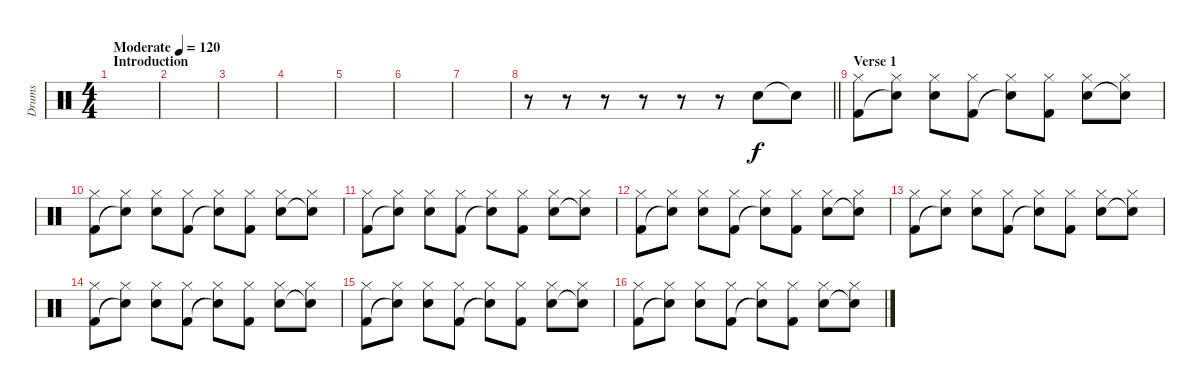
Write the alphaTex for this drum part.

\track ("Drums" "Drums") {instrument percussion}
\staff {score}
\articulation defaults
\ts (4 4)
\section ("" "Introduction")
\tempo (120 "Moderate")
\clef neutral
\ks c
|
|
|
|
|
|
|
\barLineRight lightlight
r.8 r.8 r.8 r.8 r.8 r.8 "Electric Snare (hit)".8 "Electric Snare (hit)"{t}.8 |
\section ("" "Verse 1")
("Hi-Hat (closed)" "Kick (hit) 2").8 ("Hi-Hat (closed)" "Snare (hit)"{t}).8 ("Hi-Hat (closed)" "Electric Snare (hit)").8 ("Hi-Hat (closed)" "Kick (hit) 2").8 ("Hi-Hat (closed)" "Snare (hit)"{t}).8 ("Hi-Hat (closed)" "Kick (hit) 2").8 ("Hi-Hat (closed)" "Electric Snare (hit)").8 ("Hi-Hat (closed)" "Snare (hit)"{t}).8 |
("Hi-Hat (closed)" "Kick (hit) 2").8 ("Hi-Hat (closed)" "Snare (hit)"{t}).8 ("Hi-Hat (closed)" "Electric Snare (hit)").8 ("Hi-Hat (closed)" "Kick (hit) 2").8 ("Hi-Hat (closed)" "Snare (hit)"{t}).8 ("Hi-Hat (closed)" "Kick (hit) 2").8 ("Hi-Hat (closed)" "Electric Snare (hit)").8 ("Hi-Hat (closed)" "Snare (hit)"{t}).8 |
("Hi-Hat (closed)" "Kick (hit) 2").8 ("Hi-Hat (closed)" "Snare (hit)"{t}).8 ("Hi-Hat (closed)" "Electric Snare (hit)").8 ("Hi-Hat (closed)" "Kick (hit) 2").8 ("Hi-Hat (closed)" "Snare (hit)"{t}).8 ("Hi-Hat (closed)" "Kick (hit) 2").8 ("Hi-Hat (closed)" "Electric Snare (hit)").8 ("Hi-Hat (closed)" "Snare (hit)"{t}).8 |
("Hi-Hat (closed)" "Kick (hit) 2").8 ("Hi-Hat (closed)" "Snare (hit)"{t}).8 ("Hi-Hat (closed)" "Electric Snare (hit)").8 ("Hi-Hat (closed)" "Kick (hit) 2").8 ("Hi-Hat (closed)" "Snare (hit)"{t}).8 ("Hi-Hat (closed)" "Kick (hit) 2").8 ("Hi-Hat (closed)" "Electric Snare (hit)").8 ("Hi-Hat (closed)" "Snare (hit)"{t}).8 |
("Hi-Hat (closed)" "Kick (hit) 2").8 ("Hi-Hat (closed)" "Snare (hit)"{t}).8 ("Hi-Hat (closed)" "Electric Snare (hit)").8 ("Hi-Hat (closed)" "Kick (hit) 2").8 ("Hi-Hat (closed)" "Snare (hit)"{t}).8 ("Hi-Hat (closed)" "Kick (hit) 2").8 ("Hi-Hat (closed)" "Electric Snare (hit)").8 ("Hi-Hat (closed)" "Snare (hit)"{t}).8 |
("Hi-Hat (closed)" "Kick (hit) 2").8 ("Hi-Hat (closed)" "Snare (hit)"{t}).8 ("Hi-Hat (closed)" "Electric Snare (hit)").8 ("Hi-Hat (closed)" "Kick (hit) 2").8 ("Hi-Hat (closed)" "Snare (hit)"{t}).8 ("Hi-Hat (closed)" "Kick (hit) 2").8 ("Hi-Hat (closed)" "Electric Snare (hit)").8 ("Hi-Hat (closed)" "Snare (hit)"{t}).8 |
("Hi-Hat (closed)" "Kick (hit) 2").8 ("Hi-Hat (closed)" "Snare (hit)"{t}).8 ("Hi-Hat (closed)" "Electric Snare (hit)").8 ("Hi-Hat (closed)" "Kick (hit) 2").8 ("Hi-Hat (closed)" "Snare (hit)"{t}).8 ("Hi-Hat (closed)" "Kick (hit) 2").8 ("Hi-Hat (closed)" "Electric Snare (hit)").8 ("Hi-Hat (closed)" "Snare (hit)"{t}).8 |
("Hi-Hat (closed)" "Kick (hit) 2").8 ("Hi-Hat (closed)" "Snare (hit)"{t}).8 ("Hi-Hat (closed)" "Electric Snare (hit)").8 ("Hi-Hat (closed)" "Kick (hit) 2").8 ("Hi-Hat (closed)" "Snare (hit)"{t}).8 ("Hi-Hat (closed)" "Kick (hit) 2").8 ("Hi-Hat (closed)" "Electric Snare (hit)").8 ("Hi-Hat (closed)" "Snare (hit)"{t}).8
